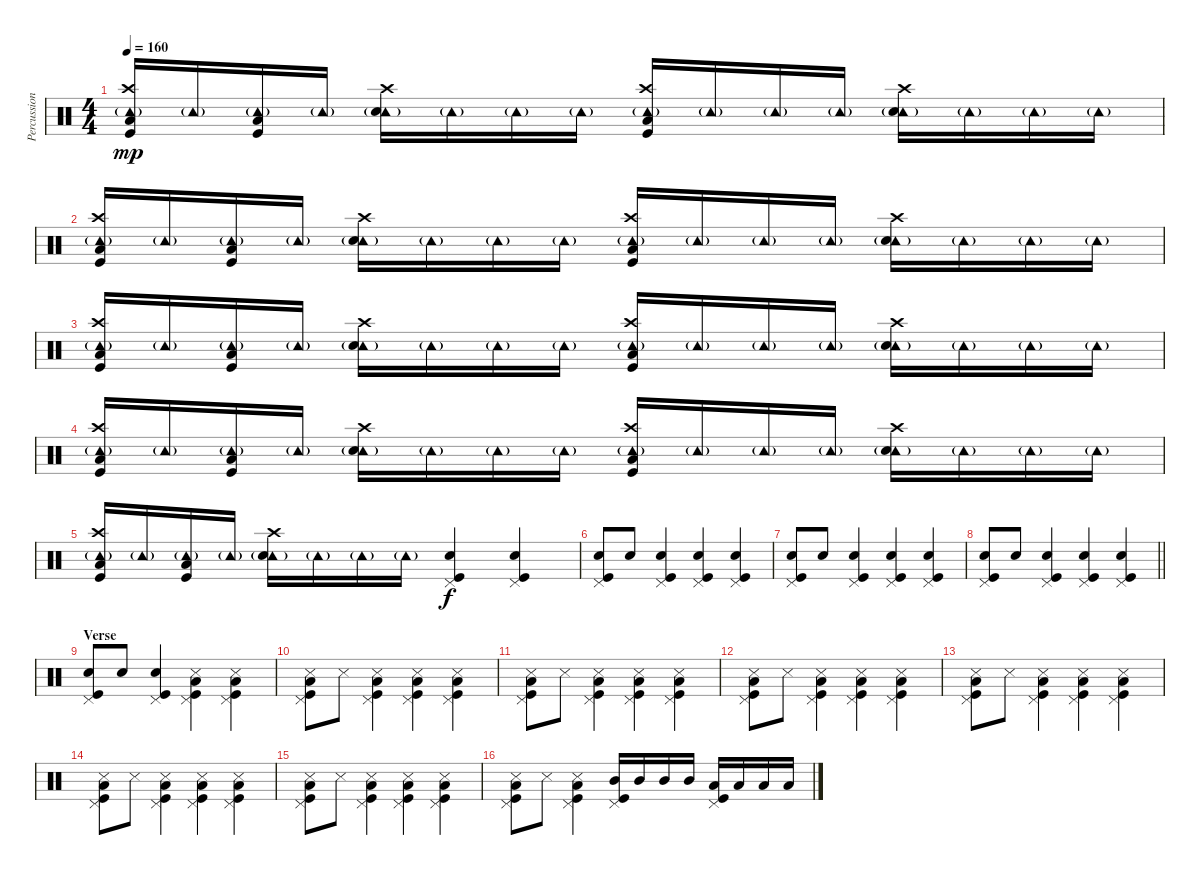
\track ("Percussion" "Percussion") {instrument percussion}
\staff {score}
\articulation defaults
\ts (4 4)
\tempo 160
\clef neutral
\ks c
("Tambourine (hit)"{g} "Crash high (hit)" "Low Floor Tom (hit)" "Kick (hit)").16{dy mp} "Tambourine (hit)"{g}.16 ("Tambourine (hit)"{g} "Low Floor Tom (hit)" "Kick (hit)").16 "Tambourine (hit)"{g}.16 ("Tambourine (hit)"{g} "Crash high (hit)" "Snare (hit) 2").16 "Tambourine (hit)"{g}.16 "Tambourine (hit)"{g}.16 "Tambourine (hit)"{g}.16 ("Tambourine (hit)"{g} "Crash high (hit)" "Low Floor Tom (hit)" "Kick (hit)").16 "Tambourine (hit)"{g}.16 "Tambourine (hit)"{g}.16 "Tambourine (hit)"{g}.16 ("Tambourine (hit)"{g} "Crash high (hit)" "Snare (hit) 2").16 "Tambourine (hit)"{g}.16 "Tambourine (hit)"{g}.16 "Tambourine (hit)"{g}.16 |
("Tambourine (hit)"{g} "Crash high (hit)" "Low Floor Tom (hit)" "Kick (hit)").16 "Tambourine (hit)"{g}.16 ("Tambourine (hit)"{g} "Low Floor Tom (hit)" "Kick (hit)").16 "Tambourine (hit)"{g}.16 ("Tambourine (hit)"{g} "Crash high (hit)" "Snare (hit) 2").16 "Tambourine (hit)"{g}.16 "Tambourine (hit)"{g}.16 "Tambourine (hit)"{g}.16 ("Tambourine (hit)"{g} "Crash high (hit)" "Low Floor Tom (hit)" "Kick (hit)").16 "Tambourine (hit)"{g}.16 "Tambourine (hit)"{g}.16 "Tambourine (hit)"{g}.16 ("Tambourine (hit)"{g} "Crash high (hit)" "Snare (hit) 2").16 "Tambourine (hit)"{g}.16 "Tambourine (hit)"{g}.16 "Tambourine (hit)"{g}.16 |
("Tambourine (hit)"{g} "Crash high (hit)" "Low Floor Tom (hit)" "Kick (hit)").16 "Tambourine (hit)"{g}.16 ("Tambourine (hit)"{g} "Low Floor Tom (hit)" "Kick (hit)").16 "Tambourine (hit)"{g}.16 ("Tambourine (hit)"{g} "Crash high (hit)" "Snare (hit) 2").16 "Tambourine (hit)"{g}.16 "Tambourine (hit)"{g}.16 "Tambourine (hit)"{g}.16 ("Tambourine (hit)"{g} "Crash high (hit)" "Low Floor Tom (hit)" "Kick (hit)").16 "Tambourine (hit)"{g}.16 "Tambourine (hit)"{g}.16 "Tambourine (hit)"{g}.16 ("Tambourine (hit)"{g} "Crash high (hit)" "Snare (hit) 2").16 "Tambourine (hit)"{g}.16 "Tambourine (hit)"{g}.16 "Tambourine (hit)"{g}.16 |
("Tambourine (hit)"{g} "Crash high (hit)" "Low Floor Tom (hit)" "Kick (hit)").16 "Tambourine (hit)"{g}.16 ("Tambourine (hit)"{g} "Low Floor Tom (hit)" "Kick (hit)").16 "Tambourine (hit)"{g}.16 ("Tambourine (hit)"{g} "Crash high (hit)" "Snare (hit) 2").16 "Tambourine (hit)"{g}.16 "Tambourine (hit)"{g}.16 "Tambourine (hit)"{g}.16 ("Tambourine (hit)"{g} "Crash high (hit)" "Low Floor Tom (hit)" "Kick (hit)").16 "Tambourine (hit)"{g}.16 "Tambourine (hit)"{g}.16 "Tambourine (hit)"{g}.16 ("Tambourine (hit)"{g} "Crash high (hit)" "Snare (hit) 2").16 "Tambourine (hit)"{g}.16 "Tambourine (hit)"{g}.16 "Tambourine (hit)"{g}.16 |
("Tambourine (hit)"{g} "Crash high (hit)" "Low Floor Tom (hit)" "Kick (hit)").16 "Tambourine (hit)"{g}.16 ("Tambourine (hit)"{g} "Low Floor Tom (hit)" "Kick (hit)").16 "Tambourine (hit)"{g}.16 ("Tambourine (hit)"{g} "Crash high (hit)" "Snare (hit) 2").16 "Tambourine (hit)"{g}.16 "Tambourine (hit)"{g}.16 "Tambourine (hit)"{g}.16 ("Hand Clap (hit)" "Kick (hit)" "Pedal Hi-Hat (hit)").4{dy f} ("Hand Clap (hit)" "Kick (hit)" "Pedal Hi-Hat (hit)").4 |
("Hand Clap (hit)" "Kick (hit)" "Pedal Hi-Hat (hit)").8 "Hand Clap (hit)".8 ("Hand Clap (hit)" "Kick (hit)" "Pedal Hi-Hat (hit)").4 ("Hand Clap (hit)" "Kick (hit)" "Pedal Hi-Hat (hit)").4 ("Hand Clap (hit)" "Kick (hit)" "Pedal Hi-Hat (hit)").4 |
("Hand Clap (hit)" "Kick (hit)" "Pedal Hi-Hat (hit)").8 "Hand Clap (hit)".8 ("Hand Clap (hit)" "Kick (hit)" "Pedal Hi-Hat (hit)").4 ("Hand Clap (hit)" "Kick (hit)" "Pedal Hi-Hat (hit)").4 ("Hand Clap (hit)" "Kick (hit)" "Pedal Hi-Hat (hit)").4 |
\barLineRight lightlight
("Hand Clap (hit)" "Kick (hit)" "Pedal Hi-Hat (hit)").8 "Hand Clap (hit)".8 ("Hand Clap (hit)" "Kick (hit)" "Pedal Hi-Hat (hit)").4 ("Hand Clap (hit)" "Kick (hit)" "Pedal Hi-Hat (hit)").4 ("Hand Clap (hit)" "Kick (hit)" "Pedal Hi-Hat (hit)").4 |
\section ("" "Verse")
("Hand Clap (hit)" "Kick (hit)" "Pedal Hi-Hat (hit)").8 "Hand Clap (hit)".8 ("Hand Clap (hit)" "Kick (hit)" "Pedal Hi-Hat (hit)").4 ("Snare (side stick) 3" "Low Floor Tom (hit)" "Kick (hit)" "Pedal Hi-Hat (hit)").4 ("Snare (side stick) 3" "Low Floor Tom (hit)" "Kick (hit)" "Pedal Hi-Hat (hit)").4 |
("Snare (side stick) 3" "Low Floor Tom (hit)" "Kick (hit)" "Pedal Hi-Hat (hit)").8 "Snare (side stick) 3".8 ("Snare (side stick) 3" "Low Floor Tom (hit)" "Kick (hit)" "Pedal Hi-Hat (hit)").4 ("Snare (side stick) 3" "Low Floor Tom (hit)" "Kick (hit)" "Pedal Hi-Hat (hit)").4 ("Snare (side stick) 3" "Low Floor Tom (hit)" "Kick (hit)" "Pedal Hi-Hat (hit)").4 |
("Snare (side stick) 3" "Low Floor Tom (hit)" "Kick (hit)" "Pedal Hi-Hat (hit)").8 "Snare (side stick) 3".8 ("Snare (side stick) 3" "Low Floor Tom (hit)" "Kick (hit)" "Pedal Hi-Hat (hit)").4 ("Snare (side stick) 3" "Low Floor Tom (hit)" "Kick (hit)" "Pedal Hi-Hat (hit)").4 ("Snare (side stick) 3" "Low Floor Tom (hit)" "Kick (hit)" "Pedal Hi-Hat (hit)").4 |
("Snare (side stick) 3" "Low Floor Tom (hit)" "Kick (hit)" "Pedal Hi-Hat (hit)").8 "Snare (side stick) 3".8 ("Snare (side stick) 3" "Low Floor Tom (hit)" "Kick (hit)" "Pedal Hi-Hat (hit)").4 ("Snare (side stick) 3" "Low Floor Tom (hit)" "Kick (hit)" "Pedal Hi-Hat (hit)").4 ("Snare (side stick) 3" "Low Floor Tom (hit)" "Kick (hit)" "Pedal Hi-Hat (hit)").4 |
("Snare (side stick) 3" "Low Floor Tom (hit)" "Kick (hit)" "Pedal Hi-Hat (hit)").8 "Snare (side stick) 3".8 ("Snare (side stick) 3" "Low Floor Tom (hit)" "Kick (hit)" "Pedal Hi-Hat (hit)").4 ("Snare (side stick) 3" "Low Floor Tom (hit)" "Kick (hit)" "Pedal Hi-Hat (hit)").4 ("Snare (side stick) 3" "Low Floor Tom (hit)" "Kick (hit)" "Pedal Hi-Hat (hit)").4 |
("Snare (side stick) 3" "Low Floor Tom (hit)" "Kick (hit)" "Pedal Hi-Hat (hit)").8 "Snare (side stick) 3".8 ("Snare (side stick) 3" "Low Floor Tom (hit)" "Kick (hit)" "Pedal Hi-Hat (hit)").4 ("Snare (side stick) 3" "Low Floor Tom (hit)" "Kick (hit)" "Pedal Hi-Hat (hit)").4 ("Snare (side stick) 3" "Low Floor Tom (hit)" "Kick (hit)" "Pedal Hi-Hat (hit)").4 |
("Snare (side stick) 3" "Low Floor Tom (hit)" "Kick (hit)" "Pedal Hi-Hat (hit)").8 "Snare (side stick) 3".8 ("Snare (side stick) 3" "Low Floor Tom (hit)" "Kick (hit)" "Pedal Hi-Hat (hit)").4 ("Snare (side stick) 3" "Low Floor Tom (hit)" "Kick (hit)" "Pedal Hi-Hat (hit)").4 ("Snare (side stick) 3" "Low Floor Tom (hit)" "Kick (hit)" "Pedal Hi-Hat (hit)").4 |
("Snare (side stick) 3" "Low Floor Tom (hit)" "Kick (hit)" "Pedal Hi-Hat (hit)").8 "Snare (side stick) 3".8 ("Snare (side stick) 3" "Low Floor Tom (hit)" "Kick (hit)" "Pedal Hi-Hat (hit)").4 ("Mid Tom (hit)" "Kick (hit)" "Pedal Hi-Hat (hit)").16 "Mid Tom (hit)".16 "Mid Tom (hit)".16 "Mid Tom (hit)".16 ("Low Tom (hit)" "Kick (hit)" "Pedal Hi-Hat (hit)").16 "Low Tom (hit)".16 "Low Tom (hit)".16 "Low Tom (hit)".16
